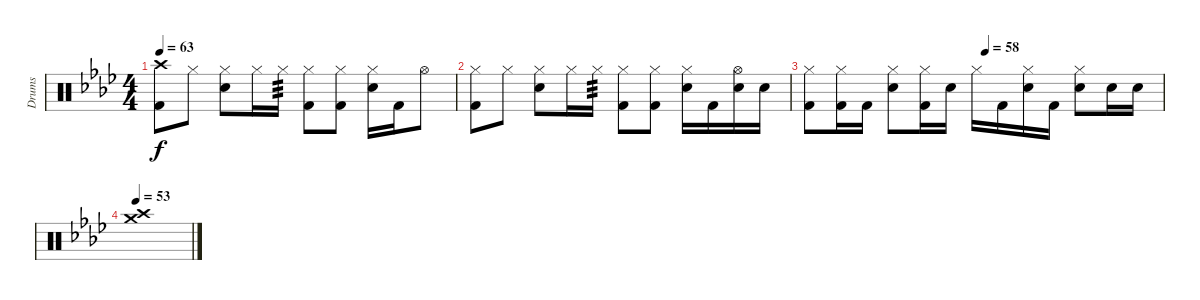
\track ("Drums" "Drums") {instrument percussion}
\staff {score}
\articulation defaults
\ts (4 4)
\tempo 63
\clef neutral
\ks fminor
("Crash high (hit)" "Kick (hit) 2").8{dy f} "Hi-Hat (closed)".8 ("Hi-Hat (closed)" "Electric Snare (hit)").8 "Hi-Hat (closed)".16 "Hi-Hat (closed)".16{tp 3} ("Hi-Hat (closed)" "Kick (hit) 2").8 ("Hi-Hat (closed)" "Kick (hit) 2").8 ("Hi-Hat (closed)" "Electric Snare (hit)").16 "Kick (hit) 2".16 "Hi-Hat (open)".8 |
("Hi-Hat (closed)" "Kick (hit) 2").8 "Hi-Hat (closed)".8 ("Hi-Hat (closed)" "Electric Snare (hit)").8 "Hi-Hat (closed)".16 "Hi-Hat (closed)".16{tp 3} ("Hi-Hat (closed)" "Kick (hit) 2").8 ("Hi-Hat (closed)" "Kick (hit) 2").8 ("Hi-Hat (closed)" "Electric Snare (hit)").16 "Kick (hit) 2".16 ("Hi-Hat (open)" "Electric Snare (hit)").16 "Electric Snare (hit)".16 |
\tempo (58 0.5)
("Hi-Hat (closed)" "Kick (hit) 2").8 ("Hi-Hat (closed)" "Kick (hit) 2").16 "Kick (hit) 2".16 ("Hi-Hat (closed)" "Electric Snare (hit)").8 ("Hi-Hat (closed)" "Kick (hit) 2").16 "Electric Snare (hit)".16 "Hi-Hat (closed)".16 "Kick (hit) 2".16 ("Hi-Hat (closed)" "Electric Snare (hit)").16 "Kick (hit) 2".16 ("Hi-Hat (closed)" "Electric Snare (hit)").8 "Electric Snare (hit)".16 "Electric Snare (hit)".16 |
\tempo 53
("Crash high (hit)" "Crash medium (hit)").1
